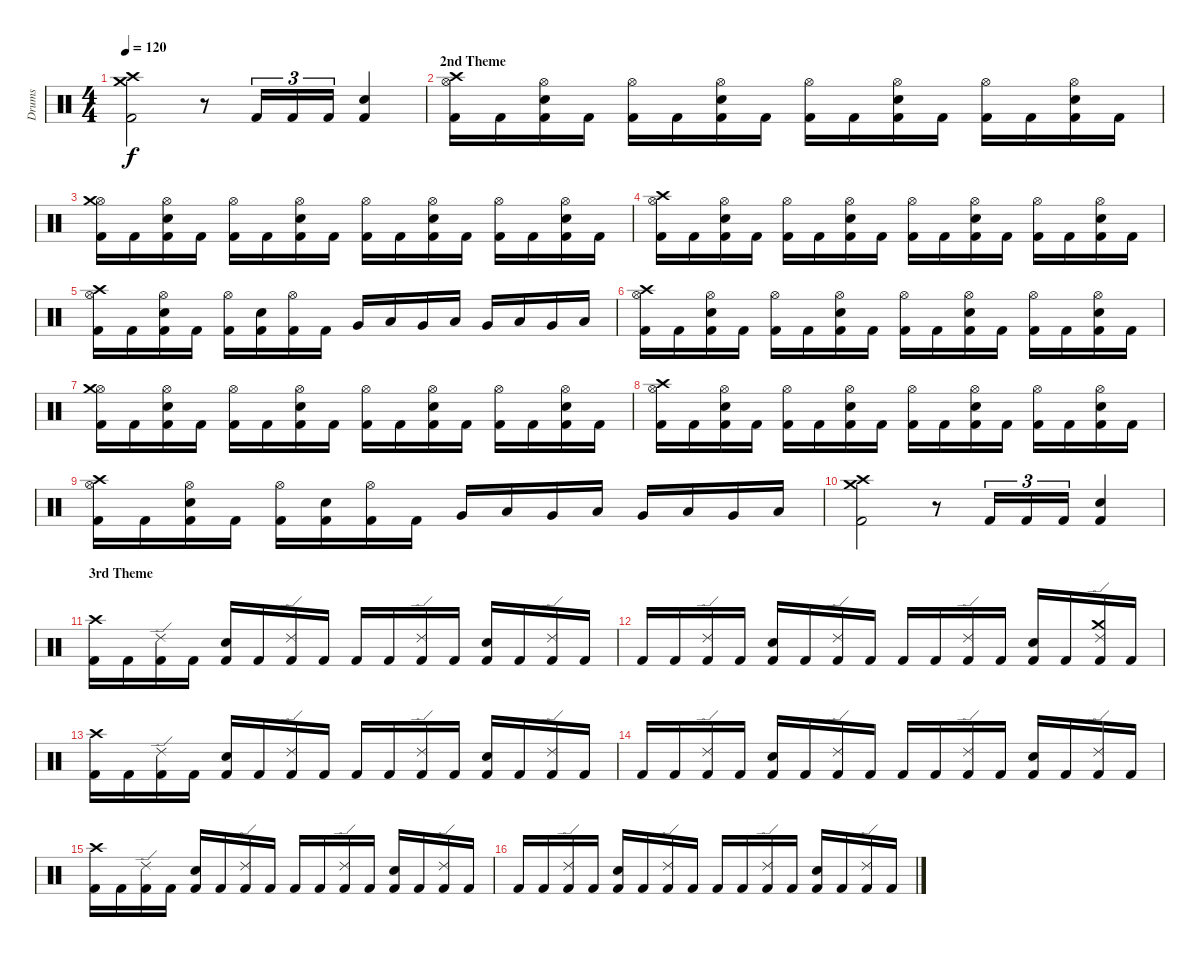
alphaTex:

\track ("Drums" "Drums") {instrument percussion}
\staff {score}
\articulation defaults
\ts (4 4)
\tempo 120
\clef neutral
\ks c
("Kick (hit) 2" "Crash medium (hit)" "Crash high (hit)").2{dy f} r.8 "Kick (hit) 2".16{tu (3 2)} "Kick (hit) 2".16{tu (3 2)} "Kick (hit) 2".16{tu (3 2)} ("Snare (hit) 2" "Kick (hit) 2").4 |
\section ("" "2nd Theme")
("Hi-Hat (open)" "Kick (hit) 2" "Crash high (hit)").16 "Kick (hit) 2".16 ("Hi-Hat (open)" "Snare (hit) 2" "Kick (hit) 2").16 "Kick (hit) 2".16 ("Hi-Hat (open)" "Kick (hit) 2").16 "Kick (hit) 2".16 ("Hi-Hat (open)" "Snare (hit) 2" "Kick (hit) 2").16 "Kick (hit) 2".16 ("Hi-Hat (open)" "Kick (hit) 2").16 "Kick (hit) 2".16 ("Hi-Hat (open)" "Snare (hit) 2" "Kick (hit) 2").16 "Kick (hit) 2".16 ("Hi-Hat (open)" "Kick (hit) 2").16 "Kick (hit) 2".16 ("Hi-Hat (open)" "Snare (hit) 2" "Kick (hit) 2").16 "Kick (hit) 2".16 |
("Hi-Hat (open)" "Kick (hit) 2" "Crash medium (hit)").16 "Kick (hit) 2".16 ("Hi-Hat (open)" "Snare (hit) 2" "Kick (hit) 2").16 "Kick (hit) 2".16 ("Hi-Hat (open)" "Kick (hit) 2").16 "Kick (hit) 2".16 ("Hi-Hat (open)" "Snare (hit) 2" "Kick (hit) 2").16 "Kick (hit) 2".16 ("Hi-Hat (open)" "Kick (hit) 2").16 "Kick (hit) 2".16 ("Hi-Hat (open)" "Snare (hit) 2" "Kick (hit) 2").16 "Kick (hit) 2".16 ("Hi-Hat (open)" "Kick (hit) 2").16 "Kick (hit) 2".16 ("Hi-Hat (open)" "Snare (hit) 2" "Kick (hit) 2").16 "Kick (hit) 2".16 |
("Hi-Hat (open)" "Kick (hit) 2" "Crash high (hit)").16 "Kick (hit) 2".16 ("Hi-Hat (open)" "Snare (hit) 2" "Kick (hit) 2").16 "Kick (hit) 2".16 ("Hi-Hat (open)" "Kick (hit) 2").16 "Kick (hit) 2".16 ("Hi-Hat (open)" "Snare (hit) 2" "Kick (hit) 2").16 "Kick (hit) 2".16 ("Hi-Hat (open)" "Kick (hit) 2").16 "Kick (hit) 2".16 ("Hi-Hat (open)" "Snare (hit) 2" "Kick (hit) 2").16 "Kick (hit) 2".16 ("Hi-Hat (open)" "Kick (hit) 2").16 "Kick (hit) 2".16 ("Hi-Hat (open)" "Snare (hit) 2" "Kick (hit) 2").16 "Kick (hit) 2".16 |
("Hi-Hat (open)" "Kick (hit) 2" "Crash high (hit)").16 "Kick (hit) 2".16 ("Hi-Hat (open)" "Snare (hit) 2" "Kick (hit) 2").16 "Kick (hit) 2".16 ("Hi-Hat (open)" "Kick (hit) 2").16 ("Snare (hit) 2" "Kick (hit) 2").16 ("Hi-Hat (open)" "Kick (hit) 2").16 "Kick (hit) 2".16 "Very Low Tom (hit)".16 "Low Tom (hit)".16 "Very Low Tom (hit)".16 "Low Tom (hit)".16 "Very Low Tom (hit)".16 "Low Tom (hit)".16 "Very Low Tom (hit)".16 "Low Tom (hit)".16 |
("Hi-Hat (open)" "Kick (hit) 2" "Crash high (hit)").16 "Kick (hit) 2".16 ("Hi-Hat (open)" "Snare (hit) 2" "Kick (hit) 2").16 "Kick (hit) 2".16 ("Hi-Hat (open)" "Kick (hit) 2").16 "Kick (hit) 2".16 ("Hi-Hat (open)" "Snare (hit) 2" "Kick (hit) 2").16 "Kick (hit) 2".16 ("Hi-Hat (open)" "Kick (hit) 2").16 "Kick (hit) 2".16 ("Hi-Hat (open)" "Snare (hit) 2" "Kick (hit) 2").16 "Kick (hit) 2".16 ("Hi-Hat (open)" "Kick (hit) 2").16 "Kick (hit) 2".16 ("Hi-Hat (open)" "Snare (hit) 2" "Kick (hit) 2").16 "Kick (hit) 2".16 |
("Hi-Hat (open)" "Kick (hit) 2" "Crash medium (hit)").16 "Kick (hit) 2".16 ("Hi-Hat (open)" "Snare (hit) 2" "Kick (hit) 2").16 "Kick (hit) 2".16 ("Hi-Hat (open)" "Kick (hit) 2").16 "Kick (hit) 2".16 ("Hi-Hat (open)" "Snare (hit) 2" "Kick (hit) 2").16 "Kick (hit) 2".16 ("Hi-Hat (open)" "Kick (hit) 2").16 "Kick (hit) 2".16 ("Hi-Hat (open)" "Snare (hit) 2" "Kick (hit) 2").16 "Kick (hit) 2".16 ("Hi-Hat (open)" "Kick (hit) 2").16 "Kick (hit) 2".16 ("Hi-Hat (open)" "Snare (hit) 2" "Kick (hit) 2").16 "Kick (hit) 2".16 |
("Hi-Hat (open)" "Kick (hit) 2" "Crash high (hit)").16 "Kick (hit) 2".16 ("Hi-Hat (open)" "Snare (hit) 2" "Kick (hit) 2").16 "Kick (hit) 2".16 ("Hi-Hat (open)" "Kick (hit) 2").16 "Kick (hit) 2".16 ("Hi-Hat (open)" "Snare (hit) 2" "Kick (hit) 2").16 "Kick (hit) 2".16 ("Hi-Hat (open)" "Kick (hit) 2").16 "Kick (hit) 2".16 ("Hi-Hat (open)" "Snare (hit) 2" "Kick (hit) 2").16 "Kick (hit) 2".16 ("Hi-Hat (open)" "Kick (hit) 2").16 "Kick (hit) 2".16 ("Hi-Hat (open)" "Snare (hit) 2" "Kick (hit) 2").16 "Kick (hit) 2".16 |
("Hi-Hat (open)" "Kick (hit) 2" "Crash high (hit)").16 "Kick (hit) 2".16 ("Hi-Hat (open)" "Snare (hit) 2" "Kick (hit) 2").16 "Kick (hit) 2".16 ("Hi-Hat (open)" "Kick (hit) 2").16 ("Snare (hit) 2" "Kick (hit) 2").16 ("Hi-Hat (open)" "Kick (hit) 2").16 "Kick (hit) 2".16 "Very Low Tom (hit)".16 "Low Tom (hit)".16 "Very Low Tom (hit)".16 "Low Tom (hit)".16 "Very Low Tom (hit)".16 "Low Tom (hit)".16 "Very Low Tom (hit)".16 "Low Tom (hit)".16 |
("Kick (hit) 2" "Crash medium (hit)" "Crash high (hit)").2 r.8 "Kick (hit) 2".16{tu (3 2)} "Kick (hit) 2".16{tu (3 2)} "Kick (hit) 2".16{tu (3 2)} ("Snare (hit) 2" "Kick (hit) 2").4 |
\section ("" "3rd Theme")
("Kick (hit) 2" "Crash high (hit)").16 "Kick (hit) 2".16 ("Ride (edge) 2" "Kick (hit) 2").16 "Kick (hit) 2".16 ("Snare (hit) 2" "Kick (hit) 2").16 "Kick (hit) 2".16 ("Ride (edge) 2" "Kick (hit) 2").16 "Kick (hit) 2".16 "Kick (hit) 2".16 "Kick (hit) 2".16 ("Ride (edge) 2" "Kick (hit) 2").16 "Kick (hit) 2".16 ("Snare (hit) 2" "Kick (hit) 2").16 "Kick (hit) 2".16 ("Ride (edge) 2" "Kick (hit) 2").16 "Kick (hit) 2".16 |
"Kick (hit) 2".16 "Kick (hit) 2".16 ("Ride (edge) 2" "Kick (hit) 2").16 "Kick (hit) 2".16 ("Snare (hit) 2" "Kick (hit) 2").16 "Kick (hit) 2".16 ("Ride (edge) 2" "Kick (hit) 2").16 "Kick (hit) 2".16 "Kick (hit) 2".16 "Kick (hit) 2".16 ("Ride (edge) 2" "Kick (hit) 2").16 "Kick (hit) 2".16 ("Snare (hit) 2" "Kick (hit) 2").16 "Kick (hit) 2".16 ("Ride (edge) 2" "Kick (hit) 2" "Crash medium (hit)").16 "Kick (hit) 2".16 |
("Kick (hit) 2" "Crash high (hit)").16 "Kick (hit) 2".16 ("Ride (edge) 2" "Kick (hit) 2").16 "Kick (hit) 2".16 ("Snare (hit) 2" "Kick (hit) 2").16 "Kick (hit) 2".16 ("Ride (edge) 2" "Kick (hit) 2").16 "Kick (hit) 2".16 "Kick (hit) 2".16 "Kick (hit) 2".16 ("Ride (edge) 2" "Kick (hit) 2").16 "Kick (hit) 2".16 ("Snare (hit) 2" "Kick (hit) 2").16 "Kick (hit) 2".16 ("Ride (edge) 2" "Kick (hit) 2").16 "Kick (hit) 2".16 |
"Kick (hit) 2".16 "Kick (hit) 2".16 ("Ride (edge) 2" "Kick (hit) 2").16 "Kick (hit) 2".16 ("Snare (hit) 2" "Kick (hit) 2").16 "Kick (hit) 2".16 ("Ride (edge) 2" "Kick (hit) 2").16 "Kick (hit) 2".16 "Kick (hit) 2".16 "Kick (hit) 2".16 ("Ride (edge) 2" "Kick (hit) 2").16 "Kick (hit) 2".16 ("Snare (hit) 2" "Kick (hit) 2").16 "Kick (hit) 2".16 ("Ride (edge) 2" "Kick (hit) 2").16 "Kick (hit) 2".16 |
("Kick (hit) 2" "Crash high (hit)").16 "Kick (hit) 2".16 ("Ride (edge) 2" "Kick (hit) 2").16 "Kick (hit) 2".16 ("Snare (hit) 2" "Kick (hit) 2").16 "Kick (hit) 2".16 ("Ride (edge) 2" "Kick (hit) 2").16 "Kick (hit) 2".16 "Kick (hit) 2".16 "Kick (hit) 2".16 ("Ride (edge) 2" "Kick (hit) 2").16 "Kick (hit) 2".16 ("Snare (hit) 2" "Kick (hit) 2").16 "Kick (hit) 2".16 ("Ride (edge) 2" "Kick (hit) 2").16 "Kick (hit) 2".16 |
"Kick (hit) 2".16 "Kick (hit) 2".16 ("Ride (edge) 2" "Kick (hit) 2").16 "Kick (hit) 2".16 ("Snare (hit) 2" "Kick (hit) 2").16 "Kick (hit) 2".16 ("Ride (edge) 2" "Kick (hit) 2").16 "Kick (hit) 2".16 "Kick (hit) 2".16 "Kick (hit) 2".16 ("Ride (edge) 2" "Kick (hit) 2").16 "Kick (hit) 2".16 ("Snare (hit) 2" "Kick (hit) 2").16 "Kick (hit) 2".16 ("Ride (edge) 2" "Kick (hit) 2").16 "Kick (hit) 2".16
